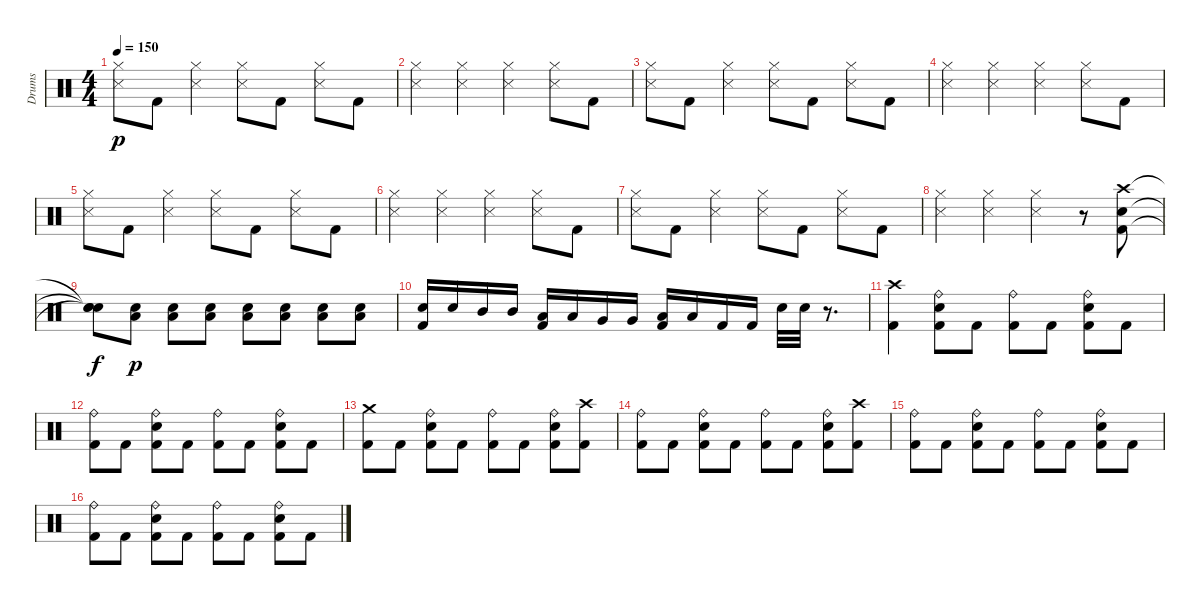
\track ("Drums" "Drums") {instrument percussion}
\staff {score}
\articulation defaults
\ts (4 4)
\tempo 150
\clef neutral
\ks c
("Snare (side stick) 3" "Hi-Hat (closed)").8{dy p} "Kick (hit) 2".8 ("Snare (side stick) 3" "Hi-Hat (closed)").4 ("Snare (side stick) 3" "Hi-Hat (closed)").8 "Kick (hit) 2".8 ("Snare (side stick) 3" "Hi-Hat (closed)").8 "Kick (hit) 2".8 |
("Snare (side stick) 3" "Hi-Hat (closed)").4 ("Snare (side stick) 3" "Hi-Hat (closed)").4 ("Snare (side stick) 3" "Hi-Hat (closed)").4 ("Snare (side stick) 3" "Hi-Hat (closed)").8 "Kick (hit) 2".8 |
("Snare (side stick) 3" "Hi-Hat (closed)").8 "Kick (hit) 2".8 ("Snare (side stick) 3" "Hi-Hat (closed)").4 ("Snare (side stick) 3" "Hi-Hat (closed)").8 "Kick (hit) 2".8 ("Snare (side stick) 3" "Hi-Hat (closed)").8 "Kick (hit) 2".8 |
("Snare (side stick) 3" "Hi-Hat (closed)").4 ("Snare (side stick) 3" "Hi-Hat (closed)").4 ("Snare (side stick) 3" "Hi-Hat (closed)").4 ("Snare (side stick) 3" "Hi-Hat (closed)").8 "Kick (hit) 2".8 |
("Snare (side stick) 3" "Hi-Hat (closed)").8 "Kick (hit) 2".8 ("Snare (side stick) 3" "Hi-Hat (closed)").4 ("Snare (side stick) 3" "Hi-Hat (closed)").8 "Kick (hit) 2".8 ("Snare (side stick) 3" "Hi-Hat (closed)").8 "Kick (hit) 2".8 |
("Snare (side stick) 3" "Hi-Hat (closed)").4 ("Snare (side stick) 3" "Hi-Hat (closed)").4 ("Snare (side stick) 3" "Hi-Hat (closed)").4 ("Snare (side stick) 3" "Hi-Hat (closed)").8 "Kick (hit) 2".8 |
("Snare (side stick) 3" "Hi-Hat (closed)").8 "Kick (hit) 2".8 ("Snare (side stick) 3" "Hi-Hat (closed)").4 ("Snare (side stick) 3" "Hi-Hat (closed)").8 "Kick (hit) 2".8 ("Snare (side stick) 3" "Hi-Hat (closed)").8 "Kick (hit) 2".8 |
("Snare (side stick) 3" "Hi-Hat (closed)").4 ("Snare (side stick) 3" "Hi-Hat (closed)").4 ("Snare (side stick) 3" "Hi-Hat (closed)").4 r.8 ("Kick (hit) 2" "Snare (hit) 2" "Crash high (hit)").8 |
("Snare (hit)"{t} "Snare (hit)"{t} "Snare (hit)"{t}).8{dy f} ("Low Floor Tom (hit)" "Snare (hit) 2").8{dy p} ("Low Floor Tom (hit)" "Snare (hit) 2").8 ("Snare (hit) 2" "Low Floor Tom (hit)").8 ("Low Floor Tom (hit)" "Snare (hit) 2").8 ("Snare (hit) 2" "Low Floor Tom (hit)").8 ("Snare (hit) 2" "Low Floor Tom (hit)").8 ("Snare (hit) 2" "Low Floor Tom (hit)").8 |
("Kick (hit) 2" "Snare (hit) 2").16 "Snare (hit) 2".16 "Mid Tom (hit)".16 "Mid Tom (hit)".16 ("Low Tom (hit)" "Kick (hit) 2").16 "Low Tom (hit)".16 "Very Low Tom (hit)".16 "Very Low Tom (hit)".16 ("Low Floor Tom (hit)" "Kick (hit) 2").16 "Low Floor Tom (hit)".16 "Kick (hit) 2".16 "Kick (hit) 2".16 "Snare (hit) 2".32 "Snare (hit) 2".32 r.8{d} |
("Kick (hit) 2" "Crash high (hit)").4 ("Kick (hit) 2" "Snare (hit) 2" "Ride (bell)").8 "Kick (hit) 2".8 ("Kick (hit) 2" "Ride (bell)").8 "Kick (hit) 2".8 ("Kick (hit) 2" "Snare (hit) 2" "Ride (bell)").8 "Kick (hit) 2".8 |
("Kick (hit) 2" "Ride (bell)").8 "Kick (hit) 2".8 ("Kick (hit) 2" "Snare (hit) 2" "Ride (bell)").8 "Kick (hit) 2".8 ("Kick (hit) 2" "Ride (bell)").8 "Kick (hit) 2".8 ("Kick (hit) 2" "Snare (hit) 2" "Ride (bell)").8 "Kick (hit) 2".8 |
("Kick (hit) 2" "Crash medium (hit)").8 "Kick (hit) 2".8 ("Kick (hit) 2" "Snare (hit) 2" "Ride (bell)").8 "Kick (hit) 2".8 ("Kick (hit) 2" "Ride (bell)").8 "Kick (hit) 2".8 ("Kick (hit) 2" "Snare (hit) 2" "Ride (bell)").8 ("Kick (hit) 2" "Crash high (hit)").8 |
("Kick (hit) 2" "Ride (bell)").8 "Kick (hit) 2".8 ("Kick (hit) 2" "Snare (hit) 2" "Ride (bell)").8 "Kick (hit) 2".8 ("Kick (hit) 2" "Ride (bell)").8 "Kick (hit) 2".8 ("Kick (hit) 2" "Snare (hit) 2" "Ride (bell)").8 ("Kick (hit) 2" "Crash high (hit)").8 |
("Kick (hit) 2" "Ride (bell)").8 "Kick (hit) 2".8 ("Kick (hit) 2" "Snare (hit) 2" "Ride (bell)").8 "Kick (hit) 2".8 ("Kick (hit) 2" "Ride (bell)").8 "Kick (hit) 2".8 ("Kick (hit) 2" "Snare (hit) 2" "Ride (bell)").8 "Kick (hit) 2".8 |
("Kick (hit) 2" "Ride (bell)").8 "Kick (hit) 2".8 ("Kick (hit) 2" "Snare (hit) 2" "Ride (bell)").8 "Kick (hit) 2".8 ("Kick (hit) 2" "Ride (bell)").8 "Kick (hit) 2".8 ("Kick (hit) 2" "Snare (hit) 2" "Ride (bell)").8 "Kick (hit) 2".8
